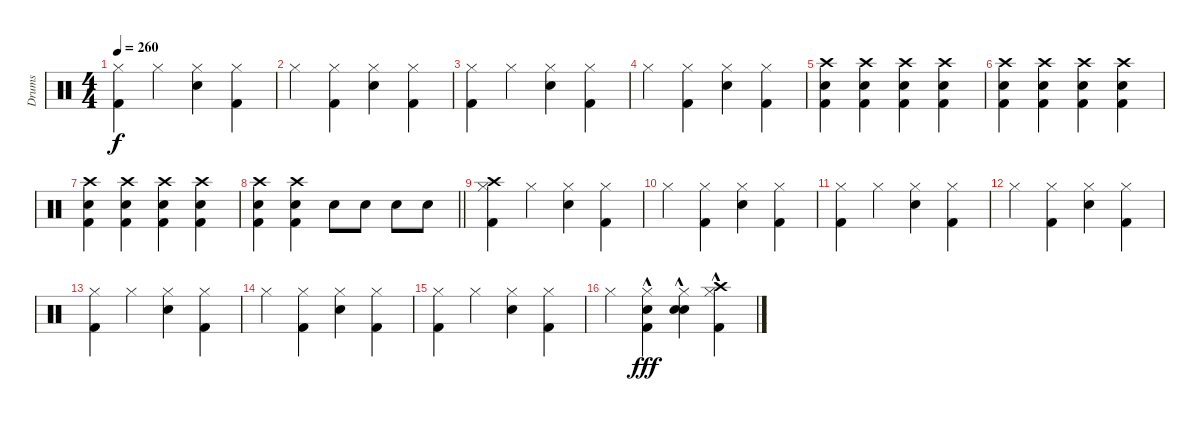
\track ("Drums" "Drums") {instrument percussion bank 2}
\staff {score}
\articulation defaults
\ts (4 4)
\tempo 260
\clef neutral
\ks c
("Hi-Hat (closed)" "Kick (hit) 2").4{dy f} "Hi-Hat (closed)".4 ("Hi-Hat (closed)" "Snare (hit) 2").4 ("Hi-Hat (closed)" "Kick (hit) 2").4 |
"Hi-Hat (closed)".4 ("Hi-Hat (closed)" "Kick (hit) 2").4 ("Hi-Hat (closed)" "Snare (hit) 2").4 ("Hi-Hat (closed)" "Kick (hit) 2").4 |
("Hi-Hat (closed)" "Kick (hit) 2").4 "Hi-Hat (closed)".4 ("Hi-Hat (closed)" "Snare (hit) 2").4 ("Hi-Hat (closed)" "Kick (hit) 2").4 |
"Hi-Hat (closed)".4 ("Hi-Hat (closed)" "Kick (hit) 2").4 ("Hi-Hat (closed)" "Snare (hit) 2").4 ("Hi-Hat (closed)" "Kick (hit) 2").4 |
("Kick (hit) 2" "Snare (hit) 2" "Crash high (hit)").4 ("Kick (hit) 2" "Snare (hit) 2" "Crash high (hit)").4 ("Kick (hit) 2" "Snare (hit) 2" "Crash high (hit)").4 ("Kick (hit) 2" "Snare (hit) 2" "Crash high (hit)").4 |
("Kick (hit) 2" "Snare (hit) 2" "Crash high (hit)").4 ("Kick (hit) 2" "Snare (hit) 2" "Crash high (hit)").4 ("Kick (hit) 2" "Snare (hit) 2" "Crash high (hit)").4 ("Kick (hit) 2" "Snare (hit) 2" "Crash high (hit)").4 |
("Kick (hit) 2" "Snare (hit) 2" "Crash high (hit)").4 ("Kick (hit) 2" "Snare (hit) 2" "Crash high (hit)").4 ("Kick (hit) 2" "Snare (hit) 2" "Crash high (hit)").4 ("Kick (hit) 2" "Snare (hit) 2" "Crash high (hit)").4 |
\barLineRight lightlight
("Kick (hit) 2" "Snare (hit) 2" "Crash high (hit)").4 ("Kick (hit) 2" "Snare (hit) 2" "Crash high (hit)").4 "Snare (hit) 2".8 "Snare (hit) 2".8 "Snare (hit) 2".8 "Snare (hit) 2".8 |
("Hi-Hat (closed)" "Kick (hit) 2" "Crash high (hit)").4 "Hi-Hat (closed)".4 ("Hi-Hat (closed)" "Snare (hit) 2").4 ("Hi-Hat (closed)" "Kick (hit) 2").4 |
"Hi-Hat (closed)".4 ("Hi-Hat (closed)" "Kick (hit) 2").4 ("Hi-Hat (closed)" "Snare (hit) 2").4 ("Hi-Hat (closed)" "Kick (hit) 2").4 |
("Hi-Hat (closed)" "Kick (hit) 2").4 "Hi-Hat (closed)".4 ("Hi-Hat (closed)" "Snare (hit) 2").4 ("Hi-Hat (closed)" "Kick (hit) 2").4 |
"Hi-Hat (closed)".4 ("Hi-Hat (closed)" "Kick (hit) 2").4 ("Hi-Hat (closed)" "Snare (hit) 2").4 ("Hi-Hat (closed)" "Kick (hit) 2").4 |
("Hi-Hat (closed)" "Kick (hit) 2").4 "Hi-Hat (closed)".4 ("Hi-Hat (closed)" "Snare (hit) 2").4 ("Hi-Hat (closed)" "Kick (hit) 2").4 |
"Hi-Hat (closed)".4 ("Hi-Hat (closed)" "Kick (hit) 2").4 ("Hi-Hat (closed)" "Snare (hit) 2").4 ("Hi-Hat (closed)" "Kick (hit) 2").4 |
("Hi-Hat (closed)" "Kick (hit) 2").4 "Hi-Hat (closed)".4 ("Hi-Hat (closed)" "Snare (hit) 2").4 ("Hi-Hat (closed)" "Kick (hit) 2").4 |
"Hi-Hat (closed)".4 ("Hi-Hat (closed)" "Kick (hit) 2" "Hand Clap (hit)"{hac}).4{dy fff} ("Hi-Hat (closed)" "Snare (hit) 2" "Hand Clap (hit)"{hac}).4 ("Hi-Hat (closed)" "Kick (hit) 2" "Crash high (hit)"{hac}).4
